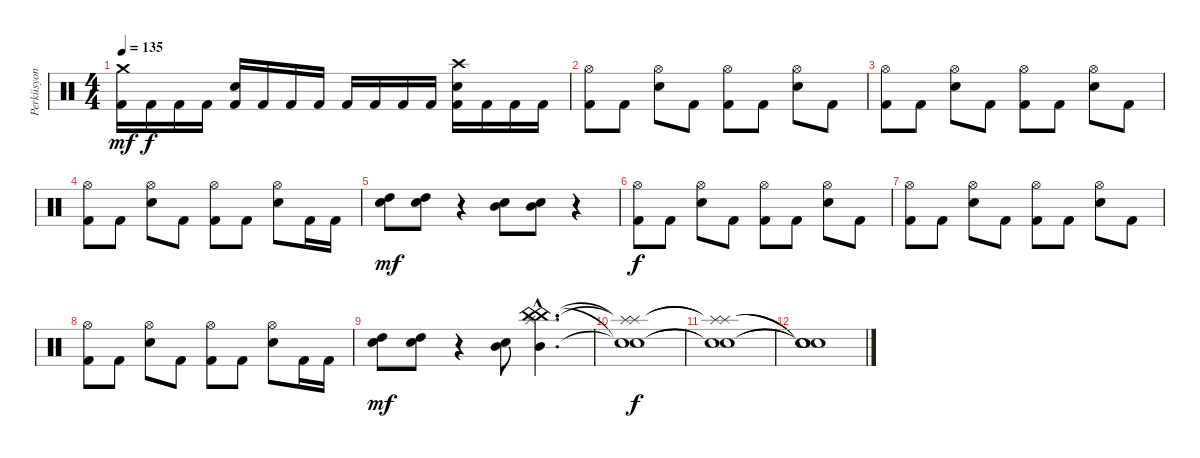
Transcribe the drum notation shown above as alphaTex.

\track ("Perküsyon" "Perküsyon") {instrument percussion}
\staff {score}
\articulation defaults
\ts (4 4)
\tempo 135
\clef neutral
\ks c
("Kick (hit) 2" "Crash medium (hit)").16{dy mf} "Kick (hit) 2".16{dy f} "Kick (hit) 2".16 "Kick (hit) 2".16 ("Kick (hit) 2" "Snare (hit) 2").16 "Kick (hit) 2".16 "Kick (hit) 2".16 "Kick (hit) 2".16 "Kick (hit) 2".16 "Kick (hit) 2".16 "Kick (hit) 2".16 "Kick (hit) 2".16 ("Kick (hit) 2" "Snare (hit) 2" "Crash high (hit)").16 "Kick (hit) 2".16 "Kick (hit) 2".16 "Kick (hit) 2".16 |
("Kick (hit) 2" "Hi-Hat (open)").8 "Kick (hit) 2".8 ("Snare (hit) 2" "Hi-Hat (open)").8 "Kick (hit) 2".8 ("Kick (hit) 2" "Hi-Hat (open)").8 "Kick (hit) 2".8 ("Snare (hit) 2" "Hi-Hat (open)").8 "Kick (hit) 2".8 |
("Kick (hit) 2" "Hi-Hat (open)").8 "Kick (hit) 2".8 ("Snare (hit) 2" "Hi-Hat (open)").8 "Kick (hit) 2".8 ("Kick (hit) 2" "Hi-Hat (open)").8 "Kick (hit) 2".8 ("Snare (hit) 2" "Hi-Hat (open)").8 "Kick (hit) 2".8 |
("Kick (hit) 2" "Hi-Hat (open)").8 "Kick (hit) 2".8 ("Snare (hit) 2" "Hi-Hat (open)").8 "Kick (hit) 2".8 ("Kick (hit) 2" "Hi-Hat (open)").8 "Kick (hit) 2".8 ("Snare (hit) 2" "Hi-Hat (open)").8 "Kick (hit) 2".16 "Kick (hit) 2".16 |
("Snare (hit) 2" "High Tom (hit)").8{dy mf} ("Snare (hit) 2" "High Tom (hit)").8 r.4 ("Snare (hit) 2" "Mid Tom (hit)").8 ("Snare (hit) 2" "Mid Tom (hit)").8 r.4 |
("Kick (hit) 2" "Hi-Hat (open)").8{dy f} "Kick (hit) 2".8 ("Snare (hit) 2" "Hi-Hat (open)").8 "Kick (hit) 2".8 ("Kick (hit) 2" "Hi-Hat (open)").8 "Kick (hit) 2".8 ("Snare (hit) 2" "Hi-Hat (open)").8 "Kick (hit) 2".8 |
("Kick (hit) 2" "Hi-Hat (open)").8 "Kick (hit) 2".8 ("Snare (hit) 2" "Hi-Hat (open)").8 "Kick (hit) 2".8 ("Kick (hit) 2" "Hi-Hat (open)").8 "Kick (hit) 2".8 ("Snare (hit) 2" "Hi-Hat (open)").8 "Kick (hit) 2".8 |
("Kick (hit) 2" "Hi-Hat (open)").8 "Kick (hit) 2".8 ("Snare (hit) 2" "Hi-Hat (open)").8 "Kick (hit) 2".8 ("Kick (hit) 2" "Hi-Hat (open)").8 "Kick (hit) 2".8 ("Snare (hit) 2" "Hi-Hat (open)").8 "Kick (hit) 2".16 "Kick (hit) 2".16 |
("Snare (hit) 2" "High Tom (hit)").8{dy mf} ("Snare (hit) 2" "High Tom (hit)").8 r.4 ("Snare (hit) 2" "Mid Tom (hit)").8 ("China (hit)"{hac} "Mid Tom (hit)"{hac} "China (hit)"{hac} "Splash (hit)"{hac}).4{d volume 7} |
("Snare (hit)"{t} "Snare (hit)"{t} "Splash (hit)"{t} "Splash (hit)"{t}).1{dy f volume 4} |
("Snare (hit)"{t} "Snare (hit)"{t} "Splash (hit)"{t} "Splash (hit)"{t}).1{volume 0} |
("Snare (hit)"{t} "Snare (hit)"{t} "Snare (hit)"{t} "Snare (hit)"{t}).1
